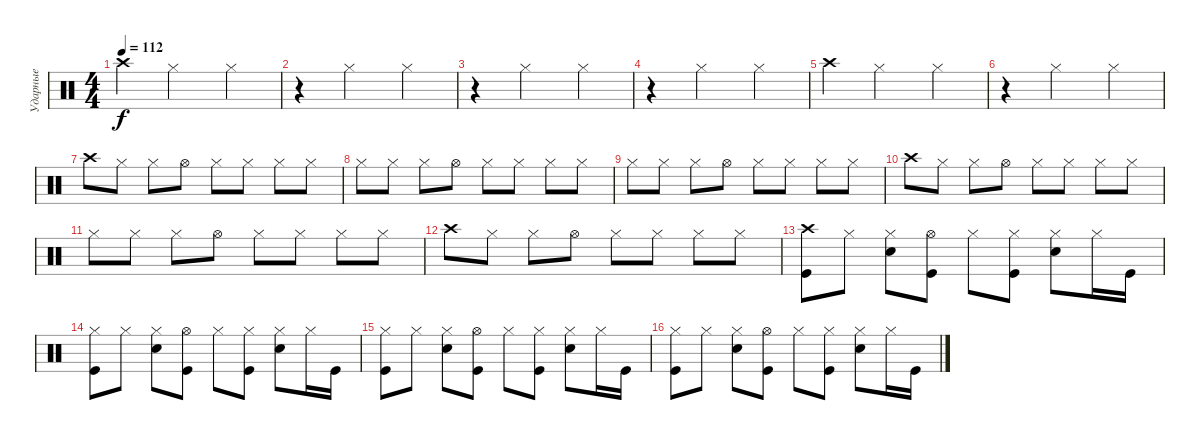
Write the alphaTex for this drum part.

\track ("Ударные" "Ударные") {instrument percussion}
\staff {score}
\articulation defaults
\ts (4 4)
\tempo 112
\clef neutral
\ks c "Crash high (hit)".4{dy f} "Hi-Hat (closed)".2 "Hi-Hat (closed)".4
|
r.4 "Hi-Hat (closed)".2 "Hi-Hat (closed)".4 |
r.4 "Hi-Hat (closed)".2 "Hi-Hat (closed)".4 |
r.4 "Hi-Hat (closed)".2 "Hi-Hat (closed)".4 |
"Crash high (hit)".4 "Hi-Hat (closed)".2 "Hi-Hat (closed)".4 |
r.4 "Hi-Hat (closed)".2 "Hi-Hat (closed)".4 |
"Crash high (hit)".8 "Hi-Hat (closed)".8 "Hi-Hat (closed)".8 "Hi-Hat (open)".8 "Hi-Hat (closed)".8 "Hi-Hat (closed)".8 "Hi-Hat (closed)".8 "Hi-Hat (closed)".8 |
"Hi-Hat (closed)".8 "Hi-Hat (closed)".8 "Hi-Hat (closed)".8 "Hi-Hat (open)".8 "Hi-Hat (closed)".8 "Hi-Hat (closed)".8 "Hi-Hat (closed)".8 "Hi-Hat (closed)".8 |
"Hi-Hat (closed)".8 "Hi-Hat (closed)".8 "Hi-Hat (closed)".8 "Hi-Hat (open)".8 "Hi-Hat (closed)".8 "Hi-Hat (closed)".8 "Hi-Hat (closed)".8 "Hi-Hat (closed)".8 |
"Crash high (hit)".8 "Hi-Hat (closed)".8 "Hi-Hat (closed)".8 "Hi-Hat (open)".8 "Hi-Hat (closed)".8 "Hi-Hat (closed)".8 "Hi-Hat (closed)".8 "Hi-Hat (closed)".8 |
"Hi-Hat (closed)".8 "Hi-Hat (closed)".8 "Hi-Hat (closed)".8 "Hi-Hat (open)".8 "Hi-Hat (closed)".8 "Hi-Hat (closed)".8 "Hi-Hat (closed)".8 "Hi-Hat (closed)".8 |
"Crash high (hit)".8 "Hi-Hat (closed)".8 "Hi-Hat (closed)".8 "Hi-Hat (open)".8 "Hi-Hat (closed)".8 "Hi-Hat (closed)".8 "Hi-Hat (closed)".8 "Hi-Hat (closed)".8 |
("Crash high (hit)" "Kick (hit)").8 "Hi-Hat (closed)".8 ("Hi-Hat (closed)" "Electric Snare (hit)").8 ("Hi-Hat (open)" "Kick (hit)").8 "Hi-Hat (closed)".8 ("Hi-Hat (closed)" "Kick (hit)").8 ("Hi-Hat (closed)" "Electric Snare (hit)").8 "Hi-Hat (closed)".16 "Kick (hit)".16 |
("Hi-Hat (closed)" "Kick (hit)").8 "Hi-Hat (closed)".8 ("Hi-Hat (closed)" "Electric Snare (hit)").8 ("Hi-Hat (open)" "Kick (hit)").8 "Hi-Hat (closed)".8 ("Hi-Hat (closed)" "Kick (hit)").8 ("Hi-Hat (closed)" "Electric Snare (hit)").8 "Hi-Hat (closed)".16 "Kick (hit)".16 |
("Hi-Hat (closed)" "Kick (hit)").8 "Hi-Hat (closed)".8 ("Hi-Hat (closed)" "Electric Snare (hit)").8 ("Hi-Hat (open)" "Kick (hit)").8 "Hi-Hat (closed)".8 ("Hi-Hat (closed)" "Kick (hit)").8 ("Hi-Hat (closed)" "Electric Snare (hit)").8 "Hi-Hat (closed)".16 "Kick (hit)".16 |
("Hi-Hat (closed)" "Kick (hit)").8 "Hi-Hat (closed)".8 ("Hi-Hat (closed)" "Electric Snare (hit)").8 ("Hi-Hat (open)" "Kick (hit)").8 "Hi-Hat (closed)".8 ("Hi-Hat (closed)" "Kick (hit)").8 ("Hi-Hat (closed)" "Electric Snare (hit)").8 "Hi-Hat (closed)".16 "Kick (hit)".16
